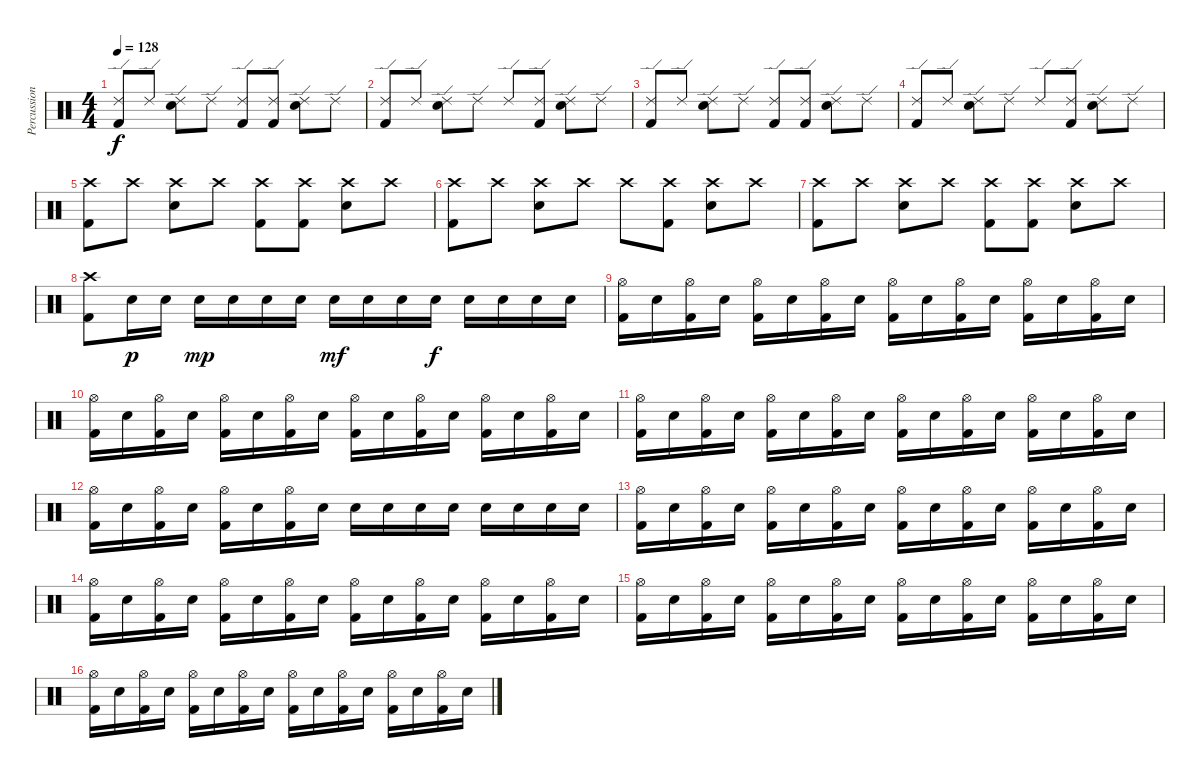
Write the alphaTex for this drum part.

\track ("Percussion" "Percussion") {instrument percussion}
\staff {score}
\articulation defaults
\ts (4 4)
\tempo 128
\clef neutral
\ks c
("Ride (edge) 2" "Kick (hit) 2").8{dy f} "Ride (edge) 2".8 ("Ride (edge) 2" "Electric Snare (hit)").8 "Ride (edge) 2".8 ("Ride (edge) 2" "Kick (hit) 2").8 ("Ride (edge) 2" "Kick (hit) 2").8 ("Ride (edge) 2" "Electric Snare (hit)").8 "Ride (edge) 2".8 |
("Ride (edge) 2" "Kick (hit) 2").8 "Ride (edge) 2".8 ("Ride (edge) 2" "Electric Snare (hit)").8 "Ride (edge) 2".8 "Ride (edge) 2".8 ("Ride (edge) 2" "Kick (hit) 2").8 ("Ride (edge) 2" "Electric Snare (hit)").8 "Ride (edge) 2".8 |
("Ride (edge) 2" "Kick (hit) 2").8 "Ride (edge) 2".8 ("Ride (edge) 2" "Electric Snare (hit)").8 "Ride (edge) 2".8 ("Ride (edge) 2" "Kick (hit) 2").8 ("Ride (edge) 2" "Kick (hit) 2").8 ("Ride (edge) 2" "Electric Snare (hit)").8 "Ride (edge) 2".8 |
("Ride (edge) 2" "Kick (hit) 2").8 "Ride (edge) 2".8 ("Ride (edge) 2" "Electric Snare (hit)").8 "Ride (edge) 2".8 "Ride (edge) 2".8 ("Ride (edge) 2" "Kick (hit) 2").8 ("Ride (edge) 2" "Electric Snare (hit)").8 "Ride (edge) 2".8 |
("Crash high (hit)" "Kick (hit) 2").8 "Crash high (hit)".8 ("Crash high (hit)" "Electric Snare (hit)").8 "Crash high (hit)".8 ("Crash high (hit)" "Kick (hit) 2").8 ("Crash high (hit)" "Kick (hit) 2").8 ("Crash high (hit)" "Electric Snare (hit)").8 "Crash high (hit)".8 |
("Crash high (hit)" "Kick (hit) 2").8 "Crash high (hit)".8 ("Crash high (hit)" "Electric Snare (hit)").8 "Crash high (hit)".8 "Crash high (hit)".8 ("Crash high (hit)" "Kick (hit) 2").8 ("Crash high (hit)" "Electric Snare (hit)").8 "Crash high (hit)".8 |
("Crash high (hit)" "Kick (hit) 2").8 "Crash high (hit)".8 ("Crash high (hit)" "Electric Snare (hit)").8 "Crash high (hit)".8 ("Crash high (hit)" "Kick (hit) 2").8 ("Crash high (hit)" "Kick (hit) 2").8 ("Crash high (hit)" "Electric Snare (hit)").8 "Crash high (hit)".8 |
("Crash high (hit)" "Kick (hit) 2").8 "Electric Snare (hit)".16{dy p} "Electric Snare (hit)".16 "Electric Snare (hit)".16{dy mp} "Electric Snare (hit)".16 "Electric Snare (hit)".16 "Electric Snare (hit)".16 "Electric Snare (hit)".16{dy mf} "Electric Snare (hit)".16 "Electric Snare (hit)".16 "Electric Snare (hit)".16{dy f} "Electric Snare (hit)".16 "Electric Snare (hit)".16 "Electric Snare (hit)".16 "Electric Snare (hit)".16 |
("Hi-Hat (open)" "Kick (hit) 2").16 "Electric Snare (hit)".16 ("Hi-Hat (open)" "Kick (hit) 2").16 "Electric Snare (hit)".16 ("Hi-Hat (open)" "Kick (hit) 2").16 "Electric Snare (hit)".16 ("Hi-Hat (open)" "Kick (hit) 2").16 "Electric Snare (hit)".16 ("Hi-Hat (open)" "Kick (hit) 2").16 "Electric Snare (hit)".16 ("Hi-Hat (open)" "Kick (hit) 2").16 "Electric Snare (hit)".16 ("Hi-Hat (open)" "Kick (hit) 2").16 "Electric Snare (hit)".16 ("Hi-Hat (open)" "Kick (hit) 2").16 "Electric Snare (hit)".16 |
("Hi-Hat (open)" "Kick (hit) 2").16 "Electric Snare (hit)".16 ("Hi-Hat (open)" "Kick (hit) 2").16 "Electric Snare (hit)".16 ("Hi-Hat (open)" "Kick (hit) 2").16 "Electric Snare (hit)".16 ("Hi-Hat (open)" "Kick (hit) 2").16 "Electric Snare (hit)".16 ("Hi-Hat (open)" "Kick (hit) 2").16 "Electric Snare (hit)".16 ("Hi-Hat (open)" "Kick (hit) 2").16 "Electric Snare (hit)".16 ("Hi-Hat (open)" "Kick (hit) 2").16 "Electric Snare (hit)".16 ("Hi-Hat (open)" "Kick (hit) 2").16 "Electric Snare (hit)".16 |
("Hi-Hat (open)" "Kick (hit) 2").16 "Electric Snare (hit)".16 ("Hi-Hat (open)" "Kick (hit) 2").16 "Electric Snare (hit)".16 ("Hi-Hat (open)" "Kick (hit) 2").16 "Electric Snare (hit)".16 ("Hi-Hat (open)" "Kick (hit) 2").16 "Electric Snare (hit)".16 ("Hi-Hat (open)" "Kick (hit) 2").16 "Electric Snare (hit)".16 ("Hi-Hat (open)" "Kick (hit) 2").16 "Electric Snare (hit)".16 ("Hi-Hat (open)" "Kick (hit) 2").16 "Electric Snare (hit)".16 ("Hi-Hat (open)" "Kick (hit) 2").16 "Electric Snare (hit)".16 |
("Hi-Hat (open)" "Kick (hit) 2").16 "Electric Snare (hit)".16 ("Hi-Hat (open)" "Kick (hit) 2").16 "Electric Snare (hit)".16 ("Hi-Hat (open)" "Kick (hit) 2").16 "Electric Snare (hit)".16 ("Hi-Hat (open)" "Kick (hit) 2").16 "Electric Snare (hit)".16 "Electric Snare (hit)".16 "Electric Snare (hit)".16 "Electric Snare (hit)".16 "Electric Snare (hit)".16 "Electric Snare (hit)".16 "Electric Snare (hit)".16 "Electric Snare (hit)".16 "Electric Snare (hit)".16 |
("Hi-Hat (open)" "Kick (hit) 2").16 "Electric Snare (hit)".16 ("Hi-Hat (open)" "Kick (hit) 2").16 "Electric Snare (hit)".16 ("Hi-Hat (open)" "Kick (hit) 2").16 "Electric Snare (hit)".16 ("Hi-Hat (open)" "Kick (hit) 2").16 "Electric Snare (hit)".16 ("Hi-Hat (open)" "Kick (hit) 2").16 "Electric Snare (hit)".16 ("Hi-Hat (open)" "Kick (hit) 2").16 "Electric Snare (hit)".16 ("Hi-Hat (open)" "Kick (hit) 2").16 "Electric Snare (hit)".16 ("Hi-Hat (open)" "Kick (hit) 2").16 "Electric Snare (hit)".16 |
("Hi-Hat (open)" "Kick (hit) 2").16 "Electric Snare (hit)".16 ("Hi-Hat (open)" "Kick (hit) 2").16 "Electric Snare (hit)".16 ("Hi-Hat (open)" "Kick (hit) 2").16 "Electric Snare (hit)".16 ("Hi-Hat (open)" "Kick (hit) 2").16 "Electric Snare (hit)".16 ("Hi-Hat (open)" "Kick (hit) 2").16 "Electric Snare (hit)".16 ("Hi-Hat (open)" "Kick (hit) 2").16 "Electric Snare (hit)".16 ("Hi-Hat (open)" "Kick (hit) 2").16 "Electric Snare (hit)".16 ("Hi-Hat (open)" "Kick (hit) 2").16 "Electric Snare (hit)".16 |
("Hi-Hat (open)" "Kick (hit) 2").16 "Electric Snare (hit)".16 ("Hi-Hat (open)" "Kick (hit) 2").16 "Electric Snare (hit)".16 ("Hi-Hat (open)" "Kick (hit) 2").16 "Electric Snare (hit)".16 ("Hi-Hat (open)" "Kick (hit) 2").16 "Electric Snare (hit)".16 ("Hi-Hat (open)" "Kick (hit) 2").16 "Electric Snare (hit)".16 ("Hi-Hat (open)" "Kick (hit) 2").16 "Electric Snare (hit)".16 ("Hi-Hat (open)" "Kick (hit) 2").16 "Electric Snare (hit)".16 ("Hi-Hat (open)" "Kick (hit) 2").16 "Electric Snare (hit)".16 |
("Hi-Hat (open)" "Kick (hit) 2").16 "Electric Snare (hit)".16 ("Hi-Hat (open)" "Kick (hit) 2").16 "Electric Snare (hit)".16 ("Hi-Hat (open)" "Kick (hit) 2").16 "Electric Snare (hit)".16 ("Hi-Hat (open)" "Kick (hit) 2").16 "Electric Snare (hit)".16 ("Hi-Hat (open)" "Kick (hit) 2").16 "Electric Snare (hit)".16 ("Hi-Hat (open)" "Kick (hit) 2").16 "Electric Snare (hit)".16 ("Hi-Hat (open)" "Kick (hit) 2").16 "Electric Snare (hit)".16 ("Hi-Hat (open)" "Kick (hit) 2").16 "Electric Snare (hit)".16
